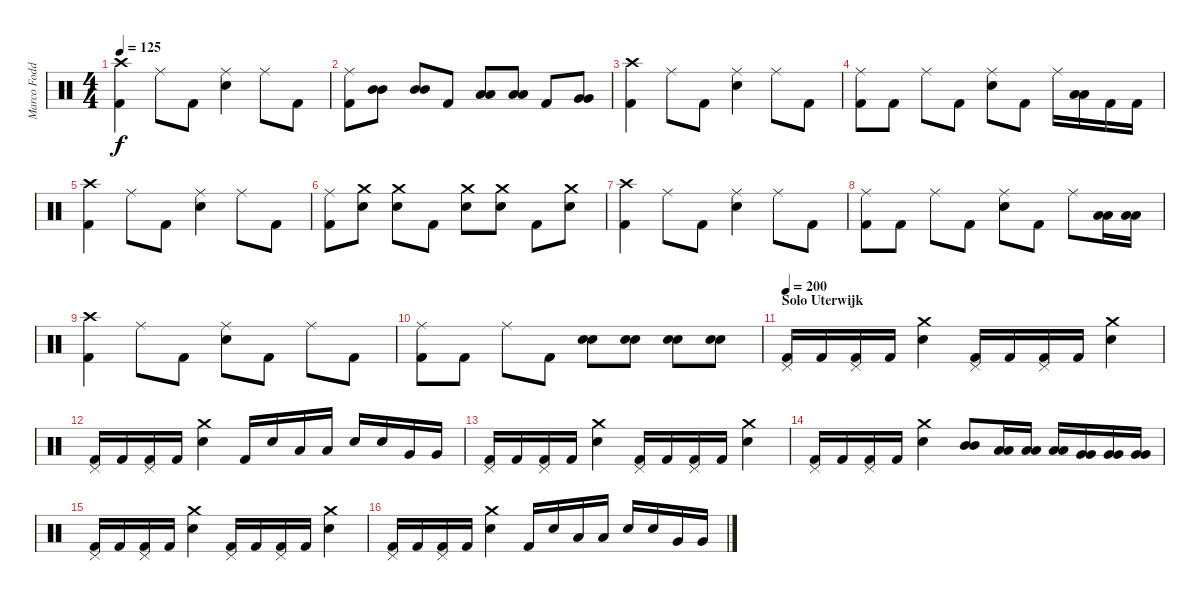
\track ("Marco Foddis " "Marco Fodd") {instrument percussion}
\staff {score}
\articulation defaults
\ts (4 4)
\tempo 125
\clef neutral
\ks c
("Crash high (hit)" "Kick (hit) 2").4{dy f} "Ride (middle)".8 "Kick (hit) 2".8 ("Ride (middle)" "Electric Snare (hit)").4 "Ride (middle)".8 "Kick (hit) 2".8 |
("Ride (middle)" "Kick (hit) 2").8 ("Mid Tom (hit)" "Mid Tom (hit)").8 ("Mid Tom (hit)" "Mid Tom (hit)").8 "Kick (hit) 2".8 ("Low Tom (hit)" "Low Tom (hit)").8 ("Low Tom (hit)" "Low Tom (hit)").8 "Kick (hit) 2".8 ("Very Low Tom (hit)" "Very Low Tom (hit)").8 |
("Crash high (hit)" "Kick (hit) 2").4 "Ride (middle)".8 "Kick (hit) 2".8 ("Ride (middle)" "Electric Snare (hit)").4 "Ride (middle)".8 "Kick (hit) 2".8 |
("Ride (middle)" "Kick (hit) 2").8 "Kick (hit) 2".8 "Ride (middle)".8 "Kick (hit) 2".8 ("Ride (middle)" "Electric Snare (hit)").8 "Kick (hit) 2".8 "Ride (middle)".16 ("Low Tom (hit)" "Low Tom (hit)").16 "Kick (hit) 2".16 "Kick (hit) 2".16 |
("Crash high (hit)" "Kick (hit) 2").4 "Ride (middle)".8 "Kick (hit) 2".8 ("Ride (middle)" "Electric Snare (hit)").4 "Ride (middle)".8 "Kick (hit) 2".8 |
("Ride (middle)" "Kick (hit) 2").8 ("Crash medium (hit)" "Electric Snare (hit)").8 ("Crash medium (hit)" "Electric Snare (hit)").8 "Kick (hit) 2".8 ("Crash medium (hit)" "Electric Snare (hit)").8 ("Crash medium (hit)" "Electric Snare (hit)").8 "Kick (hit) 2".8 ("Crash medium (hit)" "Electric Snare (hit)").8 |
("Crash high (hit)" "Kick (hit) 2").4 "Ride (middle)".8 "Kick (hit) 2".8 ("Ride (middle)" "Electric Snare (hit)").4 "Ride (middle)".8 "Kick (hit) 2".8 |
("Ride (middle)" "Kick (hit) 2").8 "Kick (hit) 2".8 "Ride (middle)".8 "Kick (hit) 2".8 ("Ride (middle)" "Electric Snare (hit)").8 "Kick (hit) 2".8 "Ride (middle)".8 ("Low Tom (hit)" "Low Tom (hit)").16 ("Low Tom (hit)" "Low Tom (hit)").16 |
("Crash high (hit)" "Kick (hit) 2").4 "Ride (middle)".8 "Kick (hit) 2".8 ("Ride (middle)" "Electric Snare (hit)").8 "Kick (hit) 2".8 "Ride (middle)".8 "Kick (hit) 2".8 |
("Ride (middle)" "Kick (hit) 2").8 "Kick (hit) 2".8 "Ride (middle)".8 "Kick (hit) 2".8 ("Electric Snare (hit)" "Electric Snare (hit)").8 ("Electric Snare (hit)" "Electric Snare (hit)").8 ("Electric Snare (hit)" "Electric Snare (hit)").8 ("Electric Snare (hit)" "Electric Snare (hit)").8 |
\section ("" "Solo Uterwijk")
\tempo 200
("Pedal Hi-Hat (hit)" "Kick (hit) 2").16 "Kick (hit) 2".16 ("Pedal Hi-Hat (hit)" "Kick (hit) 2").16 "Kick (hit) 2".16 ("Crash medium (hit)" "Electric Snare (hit)").4 ("Pedal Hi-Hat (hit)" "Kick (hit) 2").16 "Kick (hit) 2".16 ("Pedal Hi-Hat (hit)" "Kick (hit) 2").16 "Kick (hit) 2".16 ("Crash medium (hit)" "Electric Snare (hit)").4 |
("Pedal Hi-Hat (hit)" "Kick (hit) 2").16 "Kick (hit) 2".16 ("Pedal Hi-Hat (hit)" "Kick (hit) 2").16 "Kick (hit) 2".16 ("Crash medium (hit)" "Electric Snare (hit)").4 "Kick (hit) 2".16 "Electric Snare (hit)".16 "Low Tom (hit)".16 "Low Tom (hit)".16 "Electric Snare (hit)".16 "Electric Snare (hit)".16 "Very Low Tom (hit)".16 "Very Low Tom (hit)".16 |
("Pedal Hi-Hat (hit)" "Kick (hit) 2").16 "Kick (hit) 2".16 ("Pedal Hi-Hat (hit)" "Kick (hit) 2").16 "Kick (hit) 2".16 ("Crash medium (hit)" "Electric Snare (hit)").4 ("Pedal Hi-Hat (hit)" "Kick (hit) 2").16 "Kick (hit) 2".16 ("Pedal Hi-Hat (hit)" "Kick (hit) 2").16 "Kick (hit) 2".16 ("Crash medium (hit)" "Electric Snare (hit)").4 |
("Pedal Hi-Hat (hit)" "Kick (hit) 2").16 "Kick (hit) 2".16 ("Pedal Hi-Hat (hit)" "Kick (hit) 2").16 "Kick (hit) 2".16 ("Crash medium (hit)" "Electric Snare (hit)").4 ("Mid Tom (hit)" "Mid Tom (hit)").8 ("Low Tom (hit)" "Low Tom (hit)").16 ("Low Tom (hit)" "Low Tom (hit)").16 ("Low Tom (hit)" "Low Tom (hit)").16 ("Very Low Tom (hit)" "Very Low Tom (hit)").16 ("Very Low Tom (hit)" "Very Low Tom (hit)").16 ("Very Low Tom (hit)" "Very Low Tom (hit)").16 |
("Pedal Hi-Hat (hit)" "Kick (hit) 2").16 "Kick (hit) 2".16 ("Pedal Hi-Hat (hit)" "Kick (hit) 2").16 "Kick (hit) 2".16 ("Crash medium (hit)" "Electric Snare (hit)").4 ("Pedal Hi-Hat (hit)" "Kick (hit) 2").16 "Kick (hit) 2".16 ("Pedal Hi-Hat (hit)" "Kick (hit) 2").16 "Kick (hit) 2".16 ("Crash medium (hit)" "Electric Snare (hit)").4 |
("Pedal Hi-Hat (hit)" "Kick (hit) 2").16 "Kick (hit) 2".16 ("Pedal Hi-Hat (hit)" "Kick (hit) 2").16 "Kick (hit) 2".16 ("Crash medium (hit)" "Electric Snare (hit)").4 "Kick (hit) 2".16 "Electric Snare (hit)".16 "Low Tom (hit)".16 "Low Tom (hit)".16 "Electric Snare (hit)".16 "Electric Snare (hit)".16 "Very Low Tom (hit)".16 "Very Low Tom (hit)".16
